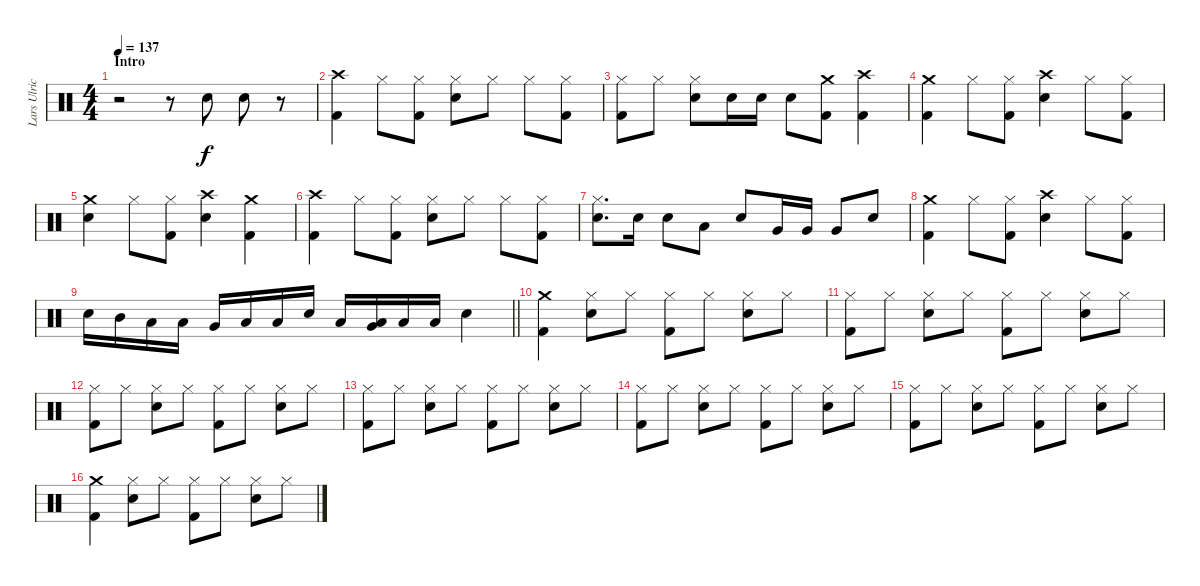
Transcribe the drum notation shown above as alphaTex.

\track ("Lars Ulrich" "Lars Ulric") {instrument percussion}
\staff {score}
\articulation defaults
\ts (4 4)
\section ("" "Intro")
\tempo 137
\clef neutral
\ks c
r.2{dy f} r.8 "Snare (hit) 2".8 "Snare (hit) 2".8 r.8 |
("Kick (hit) 2" "Crash high (hit)").4 "Hi-Hat (closed)".8 ("Kick (hit) 2" "Hi-Hat (closed)").8 ("Snare (hit) 2" "Hi-Hat (closed)").8 "Hi-Hat (closed)".8 "Hi-Hat (closed)".8 ("Kick (hit) 2" "Hi-Hat (closed)").8 |
("Kick (hit) 2" "Hi-Hat (closed)").8 "Hi-Hat (closed)".8 ("Snare (hit) 2" "Hi-Hat (closed)").8 "Snare (hit) 2".16 "Snare (hit) 2".16 "Snare (hit) 2".8 ("Kick (hit) 2" "Crash medium (hit)").8 ("Kick (hit) 2" "Crash high (hit)").4 |
("Kick (hit) 2" "Crash medium (hit)").4 "Hi-Hat (closed)".8 ("Kick (hit) 2" "Hi-Hat (closed)").8 ("Snare (hit) 2" "Crash high (hit)").4 "Hi-Hat (closed)".8 ("Kick (hit) 2" "Hi-Hat (closed)").8 |
("Snare (hit) 2" "Crash medium (hit)").4 "Hi-Hat (closed)".8 ("Kick (hit) 2" "Hi-Hat (closed)").8 ("Snare (hit) 2" "Crash high (hit)").4 ("Kick (hit) 2" "Crash medium (hit)").4 |
("Kick (hit) 2" "Crash high (hit)").4 "Hi-Hat (closed)".8 ("Kick (hit) 2" "Hi-Hat (closed)").8 ("Snare (hit) 2" "Hi-Hat (closed)").8 "Hi-Hat (closed)".8 "Hi-Hat (closed)".8 ("Kick (hit) 2" "Hi-Hat (closed)").8 |
("Snare (hit) 2" "Hi-Hat (closed)").8{d} "Snare (hit) 2".16 "Snare (hit) 2".8 "Low Tom (hit)".8 "Snare (hit) 2".8 "Very Low Tom (hit)".16 "Very Low Tom (hit)".16 "Very Low Tom (hit)".8 "Snare (hit) 2".8 |
("Kick (hit) 2" "Crash medium (hit)").4 "Hi-Hat (closed)".8 ("Kick (hit) 2" "Hi-Hat (closed)").8 ("Snare (hit) 2" "Crash high (hit)").4 "Hi-Hat (closed)".8 ("Kick (hit) 2" "Hi-Hat (closed)").8 |
\barLineRight lightlight "Snare (hit) 2".16 "Mid Tom (hit)".16 "Low Tom (hit)".16 "Low Tom (hit)".16 "Very Low Tom (hit)".16 "Low Tom (hit)".16 "Low Tom (hit)".16 "Snare (hit) 2".16 "Low Tom (hit)".16
("Low Tom (hit)" "Very Low Tom (hit)").16 "Low Tom (hit)".16 "Low Tom (hit)".16 "Snare (hit) 2".4 |
("Kick (hit) 2" "Crash medium (hit)").4 ("Snare (hit) 2" "Hi-Hat (closed)").8 "Hi-Hat (closed)".8 ("Kick (hit) 2" "Hi-Hat (closed)").8 "Hi-Hat (closed)".8 ("Snare (hit) 2" "Hi-Hat (closed)").8 "Hi-Hat (closed)".8 |
("Kick (hit) 2" "Hi-Hat (closed)").8 "Hi-Hat (closed)".8 ("Snare (hit) 2" "Hi-Hat (closed)").8 "Hi-Hat (closed)".8 ("Kick (hit) 2" "Hi-Hat (closed)").8 "Hi-Hat (closed)".8 ("Snare (hit) 2" "Hi-Hat (closed)").8 "Hi-Hat (closed)".8 |
("Kick (hit) 2" "Hi-Hat (closed)").8 "Hi-Hat (closed)".8 ("Snare (hit) 2" "Hi-Hat (closed)").8 "Hi-Hat (closed)".8 ("Kick (hit) 2" "Hi-Hat (closed)").8 "Hi-Hat (closed)".8 ("Snare (hit) 2" "Hi-Hat (closed)").8 "Hi-Hat (closed)".8 |
("Kick (hit) 2" "Hi-Hat (closed)").8 "Hi-Hat (closed)".8 ("Snare (hit) 2" "Hi-Hat (closed)").8 "Hi-Hat (closed)".8 ("Kick (hit) 2" "Hi-Hat (closed)").8 "Hi-Hat (closed)".8 ("Snare (hit) 2" "Hi-Hat (closed)").8 "Hi-Hat (closed)".8 |
("Kick (hit) 2" "Hi-Hat (closed)").8 "Hi-Hat (closed)".8 ("Snare (hit) 2" "Hi-Hat (closed)").8 "Hi-Hat (closed)".8 ("Kick (hit) 2" "Hi-Hat (closed)").8 "Hi-Hat (closed)".8 ("Snare (hit) 2" "Hi-Hat (closed)").8 "Hi-Hat (closed)".8 |
("Kick (hit) 2" "Hi-Hat (closed)").8 "Hi-Hat (closed)".8 ("Snare (hit) 2" "Hi-Hat (closed)").8 "Hi-Hat (closed)".8 ("Kick (hit) 2" "Hi-Hat (closed)").8 "Hi-Hat (closed)".8 ("Snare (hit) 2" "Hi-Hat (closed)").8 "Hi-Hat (closed)".8 |
("Kick (hit) 2" "Crash medium (hit)").4 ("Snare (hit) 2" "Hi-Hat (closed)").8 "Hi-Hat (closed)".8 ("Kick (hit) 2" "Hi-Hat (closed)").8 "Hi-Hat (closed)".8 ("Snare (hit) 2" "Hi-Hat (closed)").8 "Hi-Hat (closed)".8
